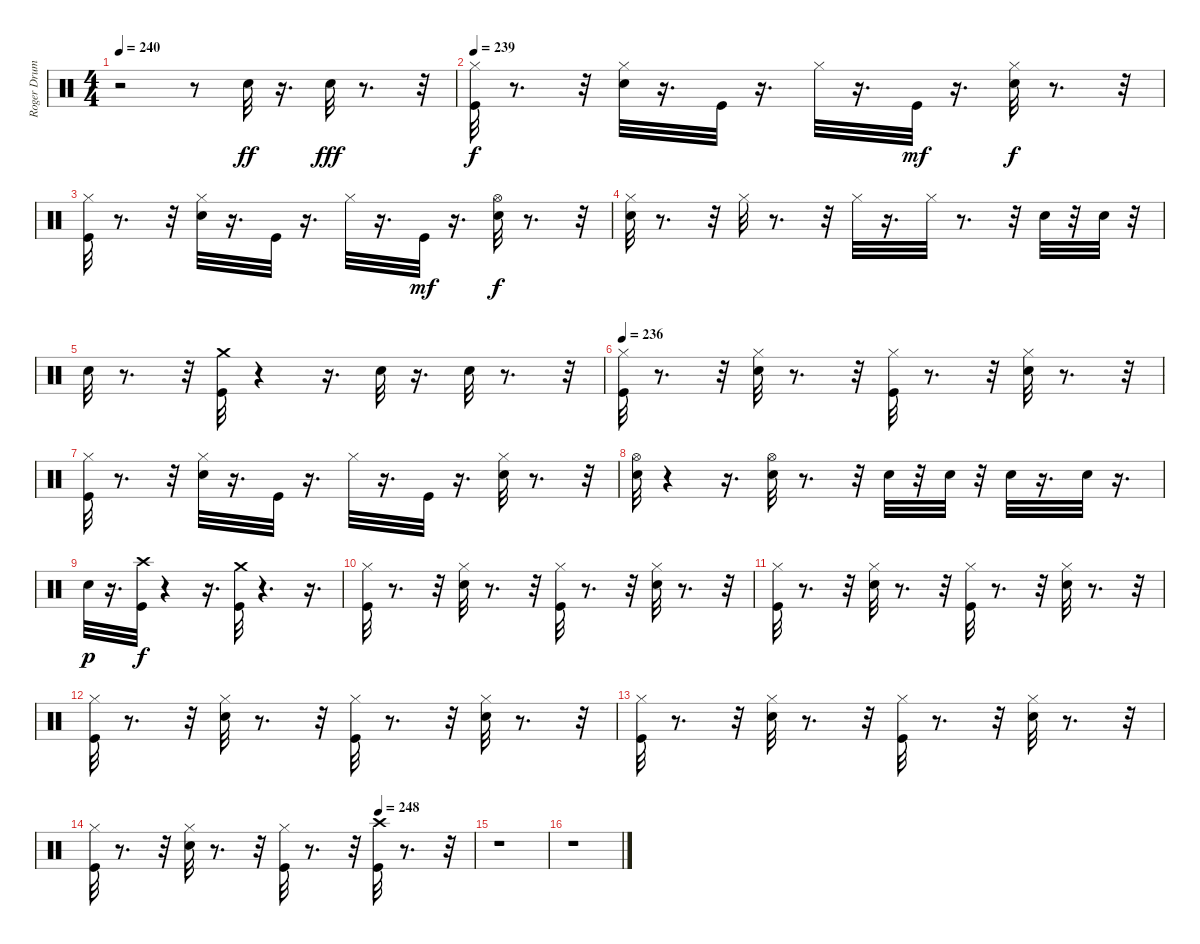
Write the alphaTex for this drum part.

\track ("Roger Drums" "Roger Drum") {instrument percussion}
\staff {score}
\articulation defaults
\ts (4 4)
\tempo 240
\clef neutral
\ks c
r.2{dy f} r.8 "Electric Snare (hit)".32{dy ff} r.16{d} "Electric Snare (hit)".32{dy fff} r.8{d} r.32 |
\tempo 239
("Kick (hit)" "Hi-Hat (closed)").32{dy f} r.8{d} r.32 ("Hi-Hat (closed)" "Electric Snare (hit)").32 r.16{d} "Kick (hit)".32 r.16{d} "Hi-Hat (closed)".32 r.16{d} "Kick (hit)".32{dy mf} r.16{d} ("Electric Snare (hit)" "Hi-Hat (closed)").32{dy f} r.8{d} r.32 |
("Kick (hit)" "Hi-Hat (closed)").32 r.8{d} r.32 ("Hi-Hat (closed)" "Electric Snare (hit)").32 r.16{d} "Kick (hit)".32 r.16{d} "Hi-Hat (closed)".32 r.16{d} "Kick (hit)".32{dy mf} r.16{d} ("Hi-Hat (open)" "Electric Snare (hit)").32{dy f} r.8{d} r.32 |
("Hi-Hat (closed)" "Electric Snare (hit)").32 r.8{d} r.32 "Hi-Hat (closed)".32 r.8{d} r.32 "Hi-Hat (closed)".32 r.16{d} "Hi-Hat (closed)".32 r.8{d} r.32 "Electric Snare (hit)".32 r.32 "Electric Snare (hit)".32 r.32 |
"Electric Snare (hit)".32 r.8{d} r.32 ("Kick (hit)" "Crash medium (hit)").32 r.4 r.16{d} "Electric Snare (hit)".32 r.16{d} "Electric Snare (hit)".32 r.8{d} r.32 |
\tempo 236
("Hi-Hat (closed)" "Kick (hit)").32 r.8{d} r.32 ("Hi-Hat (closed)" "Electric Snare (hit)").32 r.8{d} r.32 ("Hi-Hat (closed)" "Kick (hit)").32 r.8{d} r.32 ("Hi-Hat (closed)" "Electric Snare (hit)").32 r.8{d} r.32 |
("Hi-Hat (closed)" "Kick (hit)").32 r.8{d} r.32 ("Hi-Hat (closed)" "Electric Snare (hit)").32 r.16{d} "Kick (hit)".32 r.16{d} "Hi-Hat (closed)".32 r.16{d} "Kick (hit)".32 r.16{d} ("Hi-Hat (closed)" "Electric Snare (hit)").32 r.8{d} r.32 |
("Electric Snare (hit)" "Hi-Hat (open)").32 r.4 r.16{d} ("Hi-Hat (open)" "Electric Snare (hit)").32 r.8{d} r.32 "Electric Snare (hit)".32 r.32 "Electric Snare (hit)".32 r.32 "Electric Snare (hit)".32 r.16{d} "Electric Snare (hit)".32 r.16{d} |
"Electric Snare (hit)".32{dy p} r.16{d} ("Kick (hit)" "Crash high (hit)").32{dy f} r.4 r.16{d} ("Kick (hit)" "Crash medium (hit)").32 r.4{d} r.16{d} |
("Hi-Hat (closed)" "Kick (hit)").32 r.8{d} r.32 ("Hi-Hat (closed)" "Electric Snare (hit)").32 r.8{d} r.32 ("Hi-Hat (closed)" "Kick (hit)").32 r.8{d} r.32 ("Hi-Hat (closed)" "Electric Snare (hit)").32 r.8{d} r.32 |
("Hi-Hat (closed)" "Kick (hit)").32 r.8{d} r.32 ("Hi-Hat (closed)" "Electric Snare (hit)").32 r.8{d} r.32 ("Hi-Hat (closed)" "Kick (hit)").32 r.8{d} r.32 ("Hi-Hat (closed)" "Electric Snare (hit)").32 r.8{d} r.32 |
("Hi-Hat (closed)" "Kick (hit)").32 r.8{d} r.32 ("Hi-Hat (closed)" "Electric Snare (hit)").32 r.8{d} r.32 ("Hi-Hat (closed)" "Kick (hit)").32 r.8{d} r.32 ("Hi-Hat (closed)" "Electric Snare (hit)").32 r.8{d} r.32 |
("Hi-Hat (closed)" "Kick (hit)").32 r.8{d} r.32 ("Hi-Hat (closed)" "Electric Snare (hit)").32 r.8{d} r.32 ("Hi-Hat (closed)" "Kick (hit)").32 r.8{d} r.32 ("Hi-Hat (closed)" "Electric Snare (hit)").32 r.8{d} r.32 |
\tempo (248 0.75)
("Hi-Hat (closed)" "Kick (hit)").32 r.8{d} r.32 ("Hi-Hat (closed)" "Electric Snare (hit)").32 r.8{d} r.32 ("Hi-Hat (closed)" "Kick (hit)").32 r.8{d} r.32 ("Crash high (hit)" "Kick (hit)").32 r.8{d} r.32 |
r.1 |
r.1
